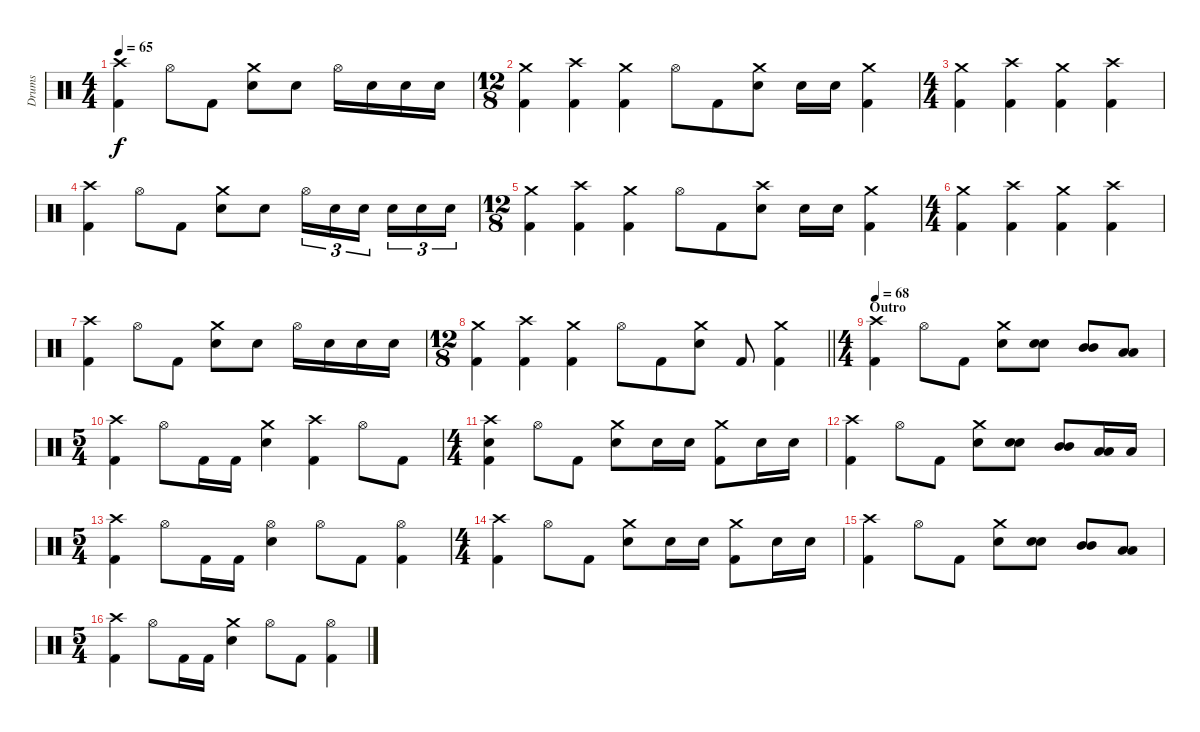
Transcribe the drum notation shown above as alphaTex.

\track ("Drums" "Drums") {instrument percussion}
\staff {score}
\articulation defaults
\ts (4 4)
\tempo 65
\clef neutral
\ks c
("Crash high (hit)" "Kick (hit) 2").4{dy f} "Hi-Hat (open)".8 "Kick (hit) 2".8 ("Crash medium (hit)" "Electric Snare (hit)").8 "Electric Snare (hit)".8 "Hi-Hat (open)".16 "Electric Snare (hit)".16 "Electric Snare (hit)".16 "Electric Snare (hit)".16 |
\ts (12 8)
("Crash medium (hit)" "Kick (hit) 2").4 ("Crash high (hit)" "Kick (hit) 2").4 ("Crash medium (hit)" "Kick (hit) 2").4 "Hi-Hat (open)".8 "Kick (hit) 2".8 ("Crash medium (hit)" "Electric Snare (hit)").8 "Electric Snare (hit)".16 "Electric Snare (hit)".16 ("Crash medium (hit)" "Kick (hit) 2").4 |
\ts (4 4)
("Crash medium (hit)" "Kick (hit) 2").4 ("Crash high (hit)" "Kick (hit) 2").4 ("Crash medium (hit)" "Kick (hit) 2").4 ("Crash high (hit)" "Kick (hit) 2").4 |
("Crash high (hit)" "Kick (hit) 2").4 "Hi-Hat (open)".8 "Kick (hit) 2".8 ("Crash medium (hit)" "Electric Snare (hit)").8 "Electric Snare (hit)".8 "Hi-Hat (open)".16{tu (3 2)} "Electric Snare (hit)".16{tu (3 2)} "Electric Snare (hit)".16{tu (3 2) beam splitsecondary} "Electric Snare (hit)".16{tu (3 2)} "Electric Snare (hit)".16{tu (3 2)} "Electric Snare (hit)".16{tu (3 2)} |
\ts (12 8)
("Crash medium (hit)" "Kick (hit) 2").4 ("Crash high (hit)" "Kick (hit) 2").4 ("Crash medium (hit)" "Kick (hit) 2").4 "Hi-Hat (open)".8 "Kick (hit) 2".8 ("Crash high (hit)" "Electric Snare (hit)").8 "Electric Snare (hit)".16 "Electric Snare (hit)".16 ("Crash medium (hit)" "Kick (hit) 2").4 |
\ts (4 4)
("Crash medium (hit)" "Kick (hit) 2").4 ("Crash high (hit)" "Kick (hit) 2").4 ("Crash medium (hit)" "Kick (hit) 2").4 ("Crash high (hit)" "Kick (hit) 2").4 |
("Crash high (hit)" "Kick (hit) 2").4 "Hi-Hat (open)".8 "Kick (hit) 2".8 ("Crash medium (hit)" "Electric Snare (hit)").8 "Electric Snare (hit)".8 "Hi-Hat (open)".16 "Electric Snare (hit)".16 "Electric Snare (hit)".16 "Electric Snare (hit)".16 |
\ts (12 8)
\barLineRight lightlight
("Crash medium (hit)" "Kick (hit) 2").4 ("Crash high (hit)" "Kick (hit) 2").4 ("Crash medium (hit)" "Kick (hit) 2").4 "Hi-Hat (open)".8 "Kick (hit) 2".8 ("Crash medium (hit)" "Electric Snare (hit)").8 "Kick (hit) 2".8 ("Crash medium (hit)" "Kick (hit) 2").4 |
\ts (4 4)
\section ("" "Outro")
\tempo 68
("Crash high (hit)" "Kick (hit) 2").4 "Hi-Hat (open)".8 "Kick (hit) 2".8 ("Crash medium (hit)" "Electric Snare (hit)").8 ("Electric Snare (hit)" "Electric Snare (hit)").8{bu 60} ("Mid Tom (hit)" "Mid Tom (hit)").8{bu 60} ("Low Tom (hit)" "Low Tom (hit)").8{bu 60} |
\ts (5 4)
("Crash high (hit)" "Kick (hit) 2").4 "Hi-Hat (open)".8 "Kick (hit) 2".16 "Kick (hit) 2".16 ("Crash medium (hit)" "Electric Snare (hit)").4 ("Crash high (hit)" "Kick (hit) 2").4 "Hi-Hat (open)".8 "Kick (hit) 2".8 |
\ts (4 4)
("Crash high (hit)" "Electric Snare (hit)" "Kick (hit) 2").4 "Hi-Hat (open)".8 "Kick (hit) 2".8 ("Crash medium (hit)" "Electric Snare (hit)").8 "Electric Snare (hit)".16 "Electric Snare (hit)".16 ("Crash medium (hit)" "Kick (hit) 2").8 "Electric Snare (hit)".16 "Electric Snare (hit)".16 |
("Crash high (hit)" "Kick (hit) 2").4 "Hi-Hat (open)".8 "Kick (hit) 2".8 ("Crash medium (hit)" "Electric Snare (hit)").8 ("Electric Snare (hit)" "Electric Snare (hit)").8{bu 60} ("Mid Tom (hit)" "Mid Tom (hit)").8{bu 60} ("Low Tom (hit)" "Low Tom (hit)").16{bu 60} "Low Tom (hit)".16 |
\ts (5 4)
("Crash high (hit)" "Kick (hit) 2").4 "Hi-Hat (open)".8 "Kick (hit) 2".16 "Kick (hit) 2".16 ("Hi-Hat (open)" "Electric Snare (hit)").4 "Hi-Hat (open)".8 "Kick (hit) 2".8 ("Hi-Hat (open)" "Kick (hit) 2").4 |
\ts (4 4)
("Crash high (hit)" "Kick (hit) 2").4 "Hi-Hat (open)".8 "Kick (hit) 2".8 ("Crash medium (hit)" "Electric Snare (hit)").8 "Electric Snare (hit)".16 "Electric Snare (hit)".16 ("Crash medium (hit)" "Kick (hit) 2").8 "Electric Snare (hit)".16 "Electric Snare (hit)".16 |
("Crash high (hit)" "Kick (hit) 2").4 "Hi-Hat (open)".8 "Kick (hit) 2".8 ("Crash medium (hit)" "Electric Snare (hit)").8 ("Electric Snare (hit)" "Electric Snare (hit)").8{bu 60} ("Mid Tom (hit)" "Mid Tom (hit)").8{bu 60} ("Low Tom (hit)" "Low Tom (hit)").8{bu 60} |
\ts (5 4)
("Crash high (hit)" "Kick (hit) 2").4 "Hi-Hat (open)".8 "Kick (hit) 2".16 "Kick (hit) 2".16 ("Crash medium (hit)" "Electric Snare (hit)").4 "Hi-Hat (open)".8 "Kick (hit) 2".8 ("Hi-Hat (open)" "Kick (hit) 2").4
